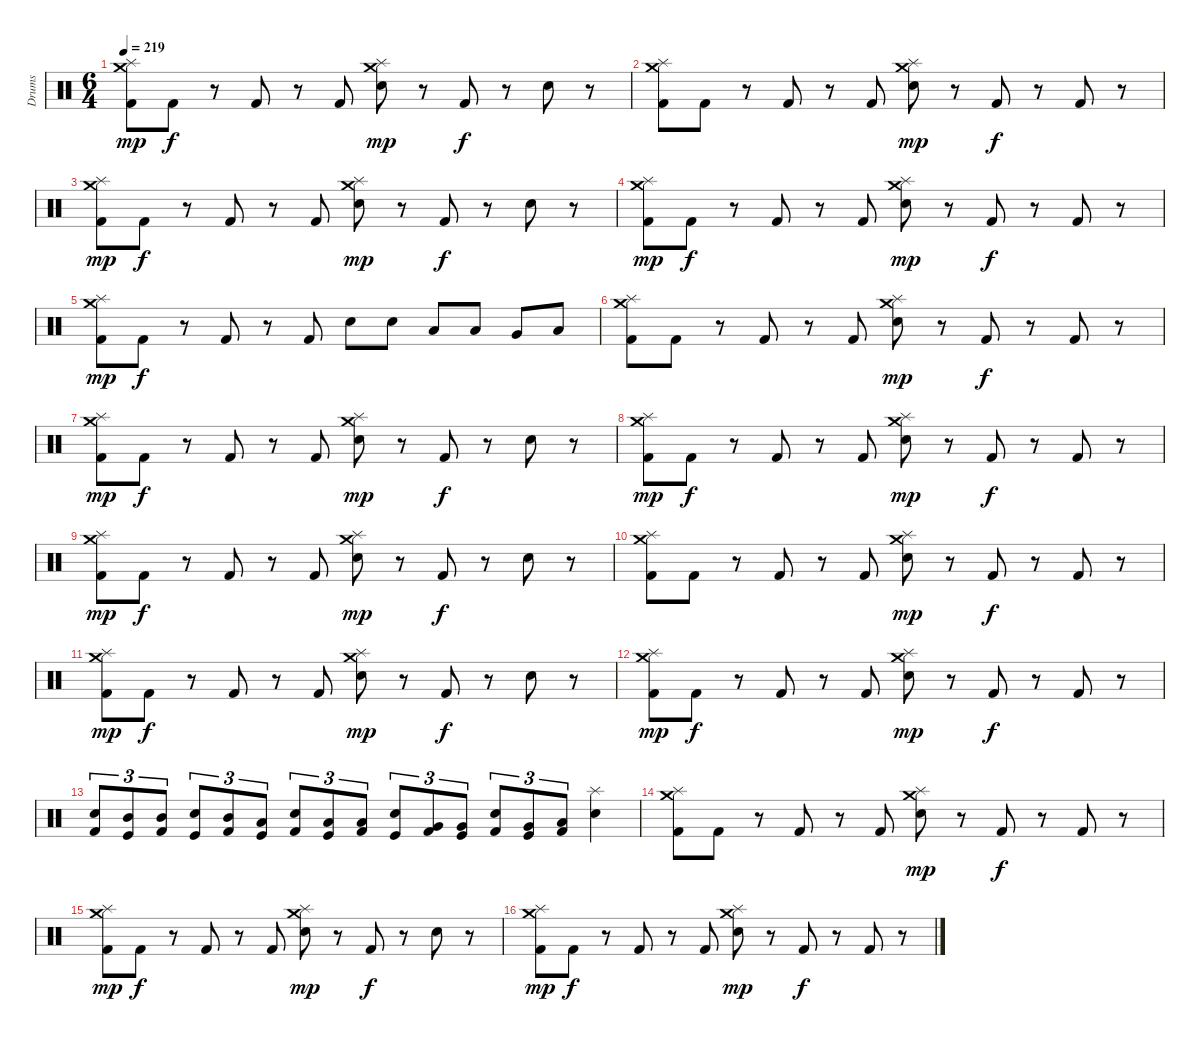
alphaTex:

\track ("Drums" "Drums") {instrument percussion}
\staff {score}
\articulation defaults
\ts (6 4)
\tempo 219
\clef neutral
\ks c
("Splash (hit)" "Crash medium (hit)" "Kick (hit) 2").8{dy mp} "Kick (hit) 2".8{dy f} r.8 "Kick (hit) 2".8 r.8 "Kick (hit) 2".8 ("Splash (hit)" "Crash medium (hit)" "Snare (hit) 2").8{dy mp} r.8 "Kick (hit) 2".8{dy f} r.8 "Snare (hit) 2".8 r.8 |
("Splash (hit)" "Crash medium (hit)" "Kick (hit) 2").8 "Kick (hit) 2".8 r.8 "Kick (hit) 2".8 r.8 "Kick (hit) 2".8 ("Splash (hit)" "Crash medium (hit)" "Snare (hit) 2").8{dy mp} r.8 "Kick (hit) 2".8{dy f} r.8 "Kick (hit) 2".8 r.8 |
("Splash (hit)" "Crash medium (hit)" "Kick (hit) 2").8{dy mp} "Kick (hit) 2".8{dy f} r.8 "Kick (hit) 2".8 r.8 "Kick (hit) 2".8 ("Splash (hit)" "Crash medium (hit)" "Snare (hit) 2").8{dy mp} r.8 "Kick (hit) 2".8{dy f} r.8 "Snare (hit) 2".8 r.8 |
("Splash (hit)" "Crash medium (hit)" "Kick (hit) 2").8{dy mp} "Kick (hit) 2".8{dy f} r.8 "Kick (hit) 2".8 r.8 "Kick (hit) 2".8 ("Splash (hit)" "Crash medium (hit)" "Snare (hit) 2").8{dy mp} r.8 "Kick (hit) 2".8{dy f} r.8 "Kick (hit) 2".8 r.8 |
("Splash (hit)" "Crash medium (hit)" "Kick (hit) 2").8{dy mp} "Kick (hit) 2".8{dy f} r.8 "Kick (hit) 2".8 r.8 "Kick (hit) 2".8 "Snare (hit) 2".8 "Snare (hit) 2".8 "Low Tom (hit)".8 "Low Tom (hit)".8 "Very Low Tom (hit)".8 "Low Floor Tom (hit)".8 |
("Splash (hit)" "Crash medium (hit)" "Kick (hit) 2").8 "Kick (hit) 2".8 r.8 "Kick (hit) 2".8 r.8 "Kick (hit) 2".8 ("Splash (hit)" "Crash medium (hit)" "Snare (hit) 2").8{dy mp} r.8 "Kick (hit) 2".8{dy f} r.8 "Kick (hit) 2".8 r.8 |
("Splash (hit)" "Crash medium (hit)" "Kick (hit) 2").8{dy mp} "Kick (hit) 2".8{dy f} r.8 "Kick (hit) 2".8 r.8 "Kick (hit) 2".8 ("Splash (hit)" "Crash medium (hit)" "Snare (hit) 2").8{dy mp} r.8 "Kick (hit) 2".8{dy f} r.8 "Snare (hit) 2".8 r.8 |
("Splash (hit)" "Crash medium (hit)" "Kick (hit) 2").8{dy mp} "Kick (hit) 2".8{dy f} r.8 "Kick (hit) 2".8 r.8 "Kick (hit) 2".8 ("Splash (hit)" "Crash medium (hit)" "Snare (hit) 2").8{dy mp} r.8 "Kick (hit) 2".8{dy f} r.8 "Kick (hit) 2".8 r.8 |
("Splash (hit)" "Crash medium (hit)" "Kick (hit) 2").8{dy mp} "Kick (hit) 2".8{dy f} r.8 "Kick (hit) 2".8 r.8 "Kick (hit) 2".8 ("Splash (hit)" "Crash medium (hit)" "Snare (hit) 2").8{dy mp} r.8 "Kick (hit) 2".8{dy f} r.8 "Snare (hit) 2".8 r.8 |
("Splash (hit)" "Crash medium (hit)" "Kick (hit) 2").8 "Kick (hit) 2".8 r.8 "Kick (hit) 2".8 r.8 "Kick (hit) 2".8 ("Splash (hit)" "Crash medium (hit)" "Snare (hit) 2").8{dy mp} r.8 "Kick (hit) 2".8{dy f} r.8 "Kick (hit) 2".8 r.8 |
("Splash (hit)" "Crash medium (hit)" "Kick (hit) 2").8{dy mp} "Kick (hit) 2".8{dy f} r.8 "Kick (hit) 2".8 r.8 "Kick (hit) 2".8 ("Splash (hit)" "Crash medium (hit)" "Snare (hit) 2").8{dy mp} r.8 "Kick (hit) 2".8{dy f} r.8 "Snare (hit) 2".8 r.8 |
("Splash (hit)" "Crash medium (hit)" "Kick (hit) 2").8{dy mp} "Kick (hit) 2".8{dy f} r.8 "Kick (hit) 2".8 r.8 "Kick (hit) 2".8 ("Splash (hit)" "Crash medium (hit)" "Snare (hit) 2").8{dy mp} r.8 "Kick (hit) 2".8{dy f} r.8 "Kick (hit) 2".8 r.8 |
("Snare (hit) 2" "Kick (hit) 2").8{tu (3 2)} ("Mid Tom (hit)" "Kick (hit)").8{tu (3 2)} ("Mid Tom (hit)" "Kick (hit) 2").8{tu (3 2)} ("Snare (hit) 2" "Kick (hit)").8{tu (3 2)} ("Mid Tom (hit)" "Kick (hit) 2").8{tu (3 2)} ("Low Tom (hit)" "Kick (hit)").8{tu (3 2)} ("Snare (hit) 2" "Kick (hit) 2").8{tu (3 2)} ("Low Tom (hit)" "Kick (hit)").8{tu (3 2)} ("Low Tom (hit)" "Kick (hit) 2").8{tu (3 2)} ("Snare (hit) 2" "Kick (hit)").8{tu (3 2)} ("Very Low Tom (hit)" "Kick (hit) 2").8{tu (3 2)} ("Very Low Tom (hit)" "Kick (hit)").8{tu (3 2)} ("Snare (hit) 2" "Kick (hit) 2").8{tu (3 2)} ("Very Low Tom (hit)" "Kick (hit)").8{tu (3 2)} ("Low Floor Tom (hit)" "Kick (hit) 2").8{tu (3 2)} ("Splash (hit)" "Snare (hit) 2").4 |
("Splash (hit)" "Crash medium (hit)" "Kick (hit) 2").8 "Kick (hit) 2".8 r.8 "Kick (hit) 2".8 r.8 "Kick (hit) 2".8 ("Splash (hit)" "Crash medium (hit)" "Snare (hit) 2").8{dy mp} r.8 "Kick (hit) 2".8{dy f} r.8 "Kick (hit) 2".8 r.8 |
("Splash (hit)" "Crash medium (hit)" "Kick (hit) 2").8{dy mp} "Kick (hit) 2".8{dy f} r.8 "Kick (hit) 2".8 r.8 "Kick (hit) 2".8 ("Splash (hit)" "Crash medium (hit)" "Snare (hit) 2").8{dy mp} r.8 "Kick (hit) 2".8{dy f} r.8 "Snare (hit) 2".8 r.8 |
("Splash (hit)" "Crash medium (hit)" "Kick (hit) 2").8{dy mp} "Kick (hit) 2".8{dy f} r.8 "Kick (hit) 2".8 r.8 "Kick (hit) 2".8 ("Splash (hit)" "Crash medium (hit)" "Snare (hit) 2").8{dy mp} r.8 "Kick (hit) 2".8{dy f} r.8 "Kick (hit) 2".8 r.8
